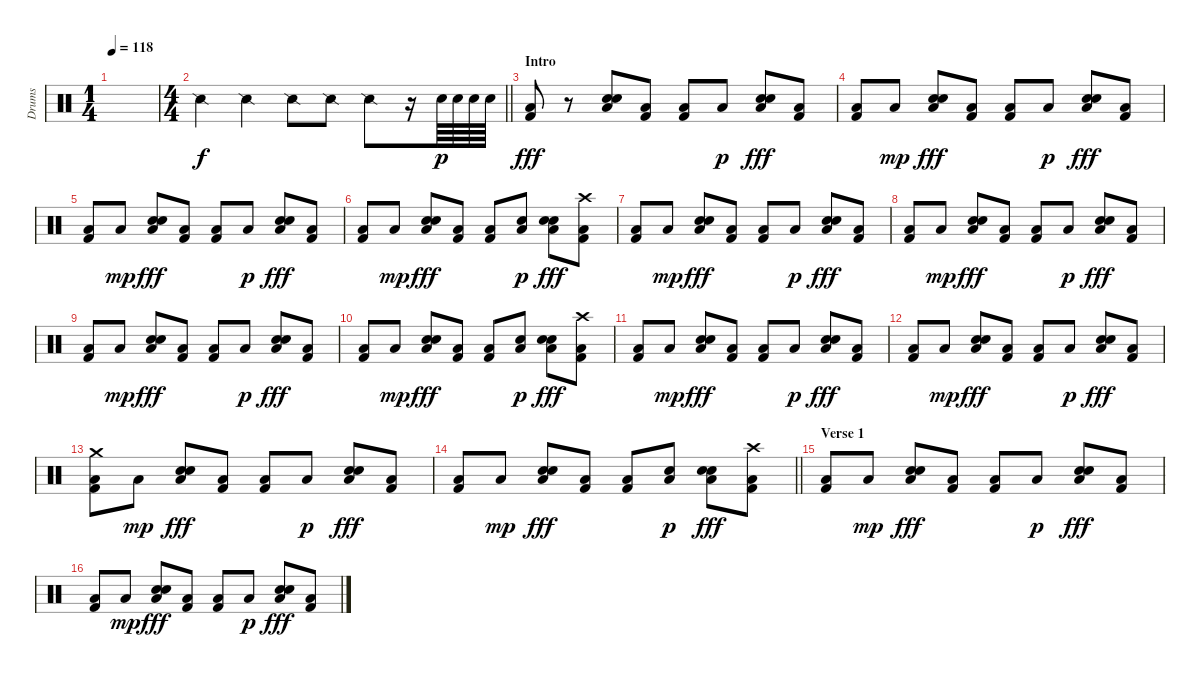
\track ("Drums" "Drums") {instrument percussion}
\staff {score}
\articulation defaults
\ts (1 4)
\tempo 118
\clef neutral
\ks c
|
\ts (4 4)
\barLineRight lightlight "Snare (side stick) 2".4 "Snare (side stick) 2".4 "Snare (side stick) 2".8 "Snare (side stick) 2".8 "Snare (side stick) 2".8
r.16 "Snare (hit) 2".64{dy p} "Snare (hit) 2".64 "Snare (hit) 2".64 "Snare (hit) 2".64 |
\section ("" "Intro")
("Low Floor Tom (hit)" "Kick (hit) 2").8{dy fff} r.8 ("Hand Clap (hit)" "Snare (hit) 2" "Low Floor Tom (hit)").8 ("Low Floor Tom (hit)" "Kick (hit) 2").8 ("Low Floor Tom (hit)" "Kick (hit) 2").8 "Low Floor Tom (hit)".8{dy p} ("Hand Clap (hit)" "Snare (hit) 2" "Low Floor Tom (hit)").8{dy fff} ("Low Floor Tom (hit)" "Kick (hit) 2").8 |
("Low Floor Tom (hit)" "Kick (hit) 2").8 "Low Floor Tom (hit)".8{dy mp} ("Hand Clap (hit)" "Snare (hit) 2" "Low Floor Tom (hit)").8{dy fff} ("Low Floor Tom (hit)" "Kick (hit) 2").8 ("Low Floor Tom (hit)" "Kick (hit) 2").8 "Low Floor Tom (hit)".8{dy p} ("Hand Clap (hit)" "Snare (hit) 2" "Low Floor Tom (hit)").8{dy fff} ("Low Floor Tom (hit)" "Kick (hit) 2").8 |
("Low Floor Tom (hit)" "Kick (hit) 2").8 "Low Floor Tom (hit)".8{dy mp} ("Hand Clap (hit)" "Snare (hit) 2" "Low Floor Tom (hit)").8{dy fff} ("Low Floor Tom (hit)" "Kick (hit) 2").8 ("Low Floor Tom (hit)" "Kick (hit) 2").8 "Low Floor Tom (hit)".8{dy p} ("Hand Clap (hit)" "Snare (hit) 2" "Low Floor Tom (hit)").8{dy fff} ("Low Floor Tom (hit)" "Kick (hit) 2").8 |
("Low Floor Tom (hit)" "Kick (hit) 2").8 "Low Floor Tom (hit)".8{dy mp} ("Hand Clap (hit)" "Snare (hit) 2" "Low Floor Tom (hit)").8{dy fff} ("Low Floor Tom (hit)" "Kick (hit) 2").8 ("Low Floor Tom (hit)" "Kick (hit) 2").8 ("Snare (hit) 2" "Low Floor Tom (hit)").8{dy p} ("Hand Clap (hit)" "Snare (hit) 2" "Low Floor Tom (hit)").8{dy fff} ("Crash high (hit)" "Low Floor Tom (hit)" "Kick (hit) 2").8 |
("Low Floor Tom (hit)" "Kick (hit) 2").8 "Low Floor Tom (hit)".8{dy mp} ("Hand Clap (hit)" "Snare (hit) 2" "Low Floor Tom (hit)").8{dy fff} ("Low Floor Tom (hit)" "Kick (hit) 2").8 ("Low Floor Tom (hit)" "Kick (hit) 2").8 "Low Floor Tom (hit)".8{dy p} ("Hand Clap (hit)" "Snare (hit) 2" "Low Floor Tom (hit)").8{dy fff} ("Low Floor Tom (hit)" "Kick (hit) 2").8 |
("Low Floor Tom (hit)" "Kick (hit) 2").8 "Low Floor Tom (hit)".8{dy mp} ("Hand Clap (hit)" "Snare (hit) 2" "Low Floor Tom (hit)").8{dy fff} ("Low Floor Tom (hit)" "Kick (hit) 2").8 ("Low Floor Tom (hit)" "Kick (hit) 2").8 "Low Floor Tom (hit)".8{dy p} ("Hand Clap (hit)" "Snare (hit) 2" "Low Floor Tom (hit)").8{dy fff} ("Low Floor Tom (hit)" "Kick (hit) 2").8 |
("Low Floor Tom (hit)" "Kick (hit) 2").8 "Low Floor Tom (hit)".8{dy mp} ("Hand Clap (hit)" "Snare (hit) 2" "Low Floor Tom (hit)").8{dy fff} ("Low Floor Tom (hit)" "Kick (hit) 2").8 ("Low Floor Tom (hit)" "Kick (hit) 2").8 "Low Floor Tom (hit)".8{dy p} ("Hand Clap (hit)" "Snare (hit) 2" "Low Floor Tom (hit)").8{dy fff} ("Low Floor Tom (hit)" "Kick (hit) 2").8 |
("Low Floor Tom (hit)" "Kick (hit) 2").8 "Low Floor Tom (hit)".8{dy mp} ("Hand Clap (hit)" "Snare (hit) 2" "Low Floor Tom (hit)").8{dy fff} ("Low Floor Tom (hit)" "Kick (hit) 2").8 ("Low Floor Tom (hit)" "Kick (hit) 2").8 ("Snare (hit) 2" "Low Floor Tom (hit)").8{dy p} ("Hand Clap (hit)" "Snare (hit) 2" "Low Floor Tom (hit)").8{dy fff} ("Crash high (hit)" "Low Floor Tom (hit)" "Kick (hit) 2").8 |
("Low Floor Tom (hit)" "Kick (hit) 2").8 "Low Floor Tom (hit)".8{dy mp} ("Hand Clap (hit)" "Snare (hit) 2" "Low Floor Tom (hit)").8{dy fff} ("Low Floor Tom (hit)" "Kick (hit) 2").8 ("Low Floor Tom (hit)" "Kick (hit) 2").8 "Low Floor Tom (hit)".8{dy p} ("Hand Clap (hit)" "Snare (hit) 2" "Low Floor Tom (hit)").8{dy fff} ("Low Floor Tom (hit)" "Kick (hit) 2").8 |
("Low Floor Tom (hit)" "Kick (hit) 2").8 "Low Floor Tom (hit)".8{dy mp} ("Hand Clap (hit)" "Snare (hit) 2" "Low Floor Tom (hit)").8{dy fff} ("Low Floor Tom (hit)" "Kick (hit) 2").8 ("Low Floor Tom (hit)" "Kick (hit) 2").8 "Low Floor Tom (hit)".8{dy p} ("Hand Clap (hit)" "Snare (hit) 2" "Low Floor Tom (hit)").8{dy fff} ("Low Floor Tom (hit)" "Kick (hit) 2").8 |
("Crash medium (hit)" "Low Floor Tom (hit)" "Kick (hit) 2").8 "Low Floor Tom (hit)".8{dy mp} ("Hand Clap (hit)" "Snare (hit) 2" "Low Floor Tom (hit)").8{dy fff} ("Low Floor Tom (hit)" "Kick (hit) 2").8 ("Low Floor Tom (hit)" "Kick (hit) 2").8 "Low Floor Tom (hit)".8{dy p} ("Hand Clap (hit)" "Snare (hit) 2" "Low Floor Tom (hit)").8{dy fff} ("Low Floor Tom (hit)" "Kick (hit) 2").8 |
\barLineRight lightlight
("Low Floor Tom (hit)" "Kick (hit) 2").8 "Low Floor Tom (hit)".8{dy mp} ("Hand Clap (hit)" "Snare (hit) 2" "Low Floor Tom (hit)").8{dy fff} ("Low Floor Tom (hit)" "Kick (hit) 2").8 ("Low Floor Tom (hit)" "Kick (hit) 2").8 ("Snare (hit) 2" "Low Floor Tom (hit)").8{dy p} ("Hand Clap (hit)" "Snare (hit) 2" "Low Floor Tom (hit)").8{dy fff} ("Crash high (hit)" "Low Floor Tom (hit)" "Kick (hit) 2").8 |
\section ("" "Verse 1")
("Low Floor Tom (hit)" "Kick (hit) 2").8 "Low Floor Tom (hit)".8{dy mp} ("Hand Clap (hit)" "Snare (hit) 2" "Low Floor Tom (hit)").8{dy fff} ("Low Floor Tom (hit)" "Kick (hit) 2").8 ("Low Floor Tom (hit)" "Kick (hit) 2").8 "Low Floor Tom (hit)".8{dy p} ("Hand Clap (hit)" "Snare (hit) 2" "Low Floor Tom (hit)").8{dy fff} ("Low Floor Tom (hit)" "Kick (hit) 2").8 |
("Low Floor Tom (hit)" "Kick (hit) 2").8 "Low Floor Tom (hit)".8{dy mp} ("Hand Clap (hit)" "Snare (hit) 2" "Low Floor Tom (hit)").8{dy fff} ("Low Floor Tom (hit)" "Kick (hit) 2").8 ("Low Floor Tom (hit)" "Kick (hit) 2").8 "Low Floor Tom (hit)".8{dy p} ("Hand Clap (hit)" "Snare (hit) 2" "Low Floor Tom (hit)").8{dy fff} ("Low Floor Tom (hit)" "Kick (hit) 2").8
